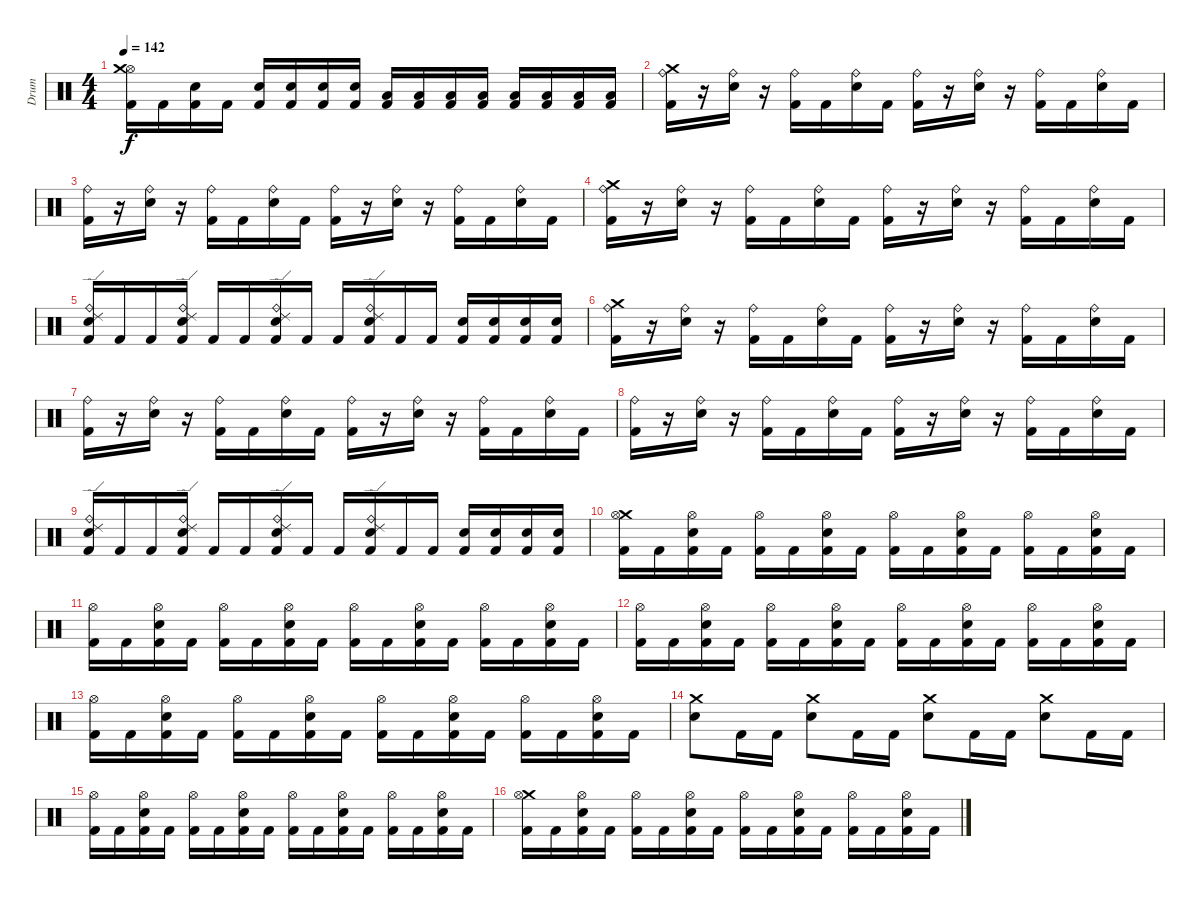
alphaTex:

\track ("Drum" "Drum") {instrument percussion}
\staff {score}
\articulation defaults
\ts (4 4)
\tempo 142
\clef neutral
\ks c
("Hi-Hat (open)" "Crash medium (hit)" "Kick (hit) 2").16{dy f} "Kick (hit) 2".16 ("Electric Snare (hit)" "Kick (hit) 2").16 "Kick (hit) 2".16 ("Electric Snare (hit)" "Kick (hit) 2").16 ("Electric Snare (hit)" "Kick (hit) 2").16 ("Electric Snare (hit)" "Kick (hit) 2").16 ("Electric Snare (hit)" "Kick (hit) 2").16 ("Low Tom (hit)" "Kick (hit) 2").16 ("Low Tom (hit)" "Kick (hit) 2").16 ("Low Tom (hit)" "Kick (hit) 2").16 ("Low Tom (hit)" "Kick (hit) 2").16 ("Low Tom (hit)" "Kick (hit) 2").16 ("Low Tom (hit)" "Kick (hit) 2").16 ("Low Tom (hit)" "Kick (hit) 2").16 ("Low Tom (hit)" "Kick (hit) 2").16 |
("Ride (bell)" "Kick (hit) 2" "Crash medium (hit)").16 r.16 ("Ride (bell)" "Electric Snare (hit)").16 r.16 ("Ride (bell)" "Kick (hit) 2").16 "Kick (hit) 2".16 ("Ride (bell)" "Electric Snare (hit)").16 "Kick (hit) 2".16 ("Ride (bell)" "Kick (hit) 2").16 r.16 ("Ride (bell)" "Electric Snare (hit)").16 r.16 ("Ride (bell)" "Kick (hit) 2").16 "Kick (hit) 2".16 ("Ride (bell)" "Electric Snare (hit)").16 "Kick (hit) 2".16 |
("Ride (bell)" "Kick (hit) 2").16 r.16 ("Ride (bell)" "Electric Snare (hit)").16 r.16 ("Ride (bell)" "Kick (hit) 2").16 "Kick (hit) 2".16 ("Ride (bell)" "Electric Snare (hit)").16 "Kick (hit) 2".16 ("Ride (bell)" "Kick (hit) 2").16 r.16 ("Ride (bell)" "Electric Snare (hit)").16 r.16 ("Ride (bell)" "Kick (hit) 2").16 "Kick (hit) 2".16 ("Ride (bell)" "Electric Snare (hit)").16 "Kick (hit) 2".16 |
("Ride (bell)" "Kick (hit) 2" "Crash medium (hit)").16 r.16 ("Ride (bell)" "Electric Snare (hit)").16 r.16 ("Ride (bell)" "Kick (hit) 2").16 "Kick (hit) 2".16 ("Ride (bell)" "Electric Snare (hit)").16 "Kick (hit) 2".16 ("Ride (bell)" "Kick (hit) 2").16 r.16 ("Ride (bell)" "Electric Snare (hit)").16 r.16 ("Ride (bell)" "Kick (hit) 2").16 "Kick (hit) 2".16 ("Ride (bell)" "Electric Snare (hit)").16 "Kick (hit) 2".16 |
("Ride (bell)" "Electric Snare (hit)" "Ride (edge) 2" "Kick (hit) 2").16 "Kick (hit) 2".16 "Kick (hit) 2".16 ("Ride (bell)" "Electric Snare (hit)" "Ride (edge) 2" "Kick (hit) 2").16 "Kick (hit) 2".16 "Kick (hit) 2".16 ("Ride (bell)" "Electric Snare (hit)" "Ride (edge) 2" "Kick (hit) 2").16 "Kick (hit) 2".16 "Kick (hit) 2".16 ("Ride (bell)" "Electric Snare (hit)" "Ride (edge) 2" "Kick (hit) 2").16 "Kick (hit) 2".16 "Kick (hit) 2".16 ("Electric Snare (hit)" "Kick (hit) 2").16 ("Electric Snare (hit)" "Kick (hit) 2").16 ("Electric Snare (hit)" "Kick (hit) 2").16 ("Electric Snare (hit)" "Kick (hit) 2").16 |
("Ride (bell)" "Kick (hit) 2" "Crash medium (hit)").16 r.16 ("Ride (bell)" "Electric Snare (hit)").16 r.16 ("Ride (bell)" "Kick (hit) 2").16 "Kick (hit) 2".16 ("Ride (bell)" "Electric Snare (hit)").16 "Kick (hit) 2".16 ("Ride (bell)" "Kick (hit) 2").16 r.16 ("Ride (bell)" "Electric Snare (hit)").16 r.16 ("Ride (bell)" "Kick (hit) 2").16 "Kick (hit) 2".16 ("Ride (bell)" "Electric Snare (hit)").16 "Kick (hit) 2".16 |
("Ride (bell)" "Kick (hit) 2").16 r.16 ("Ride (bell)" "Electric Snare (hit)").16 r.16 ("Ride (bell)" "Kick (hit) 2").16 "Kick (hit) 2".16 ("Ride (bell)" "Electric Snare (hit)").16 "Kick (hit) 2".16 ("Ride (bell)" "Kick (hit) 2").16 r.16 ("Ride (bell)" "Electric Snare (hit)").16 r.16 ("Ride (bell)" "Kick (hit) 2").16 "Kick (hit) 2".16 ("Ride (bell)" "Electric Snare (hit)").16 "Kick (hit) 2".16 |
("Ride (bell)" "Kick (hit) 2").16 r.16 ("Ride (bell)" "Electric Snare (hit)").16 r.16 ("Ride (bell)" "Kick (hit) 2").16 "Kick (hit) 2".16 ("Ride (bell)" "Electric Snare (hit)").16 "Kick (hit) 2".16 ("Ride (bell)" "Kick (hit) 2").16 r.16 ("Ride (bell)" "Electric Snare (hit)").16 r.16 ("Ride (bell)" "Kick (hit) 2").16 "Kick (hit) 2".16 ("Ride (bell)" "Electric Snare (hit)").16 "Kick (hit) 2".16 |
("Ride (bell)" "Electric Snare (hit)" "Ride (edge) 2" "Kick (hit) 2").16 "Kick (hit) 2".16 "Kick (hit) 2".16 ("Ride (bell)" "Electric Snare (hit)" "Ride (edge) 2" "Kick (hit) 2").16 "Kick (hit) 2".16 "Kick (hit) 2".16 ("Ride (bell)" "Electric Snare (hit)" "Ride (edge) 2" "Kick (hit) 2").16 "Kick (hit) 2".16 "Kick (hit) 2".16 ("Ride (bell)" "Electric Snare (hit)" "Ride (edge) 2" "Kick (hit) 2").16 "Kick (hit) 2".16 "Kick (hit) 2".16 ("Electric Snare (hit)" "Kick (hit) 2").16 ("Electric Snare (hit)" "Kick (hit) 2").16 ("Electric Snare (hit)" "Kick (hit) 2").16 ("Electric Snare (hit)" "Kick (hit) 2").16 |
("Crash medium (hit)" "Hi-Hat (open)" "Kick (hit) 2").16 "Kick (hit) 2".16 ("Electric Snare (hit)" "Hi-Hat (open)" "Kick (hit) 2").16 "Kick (hit) 2".16 ("Hi-Hat (open)" "Kick (hit) 2").16 "Kick (hit) 2".16 ("Electric Snare (hit)" "Hi-Hat (open)" "Kick (hit) 2").16 "Kick (hit) 2".16 ("Hi-Hat (open)" "Kick (hit) 2").16 "Kick (hit) 2".16 ("Electric Snare (hit)" "Hi-Hat (open)" "Kick (hit) 2").16 "Kick (hit) 2".16 ("Hi-Hat (open)" "Kick (hit) 2").16 "Kick (hit) 2".16 ("Electric Snare (hit)" "Hi-Hat (open)" "Kick (hit) 2").16 "Kick (hit) 2".16 |
("Hi-Hat (open)" "Kick (hit) 2").16 "Kick (hit) 2".16 ("Electric Snare (hit)" "Hi-Hat (open)" "Kick (hit) 2").16 "Kick (hit) 2".16 ("Hi-Hat (open)" "Kick (hit) 2").16 "Kick (hit) 2".16 ("Electric Snare (hit)" "Hi-Hat (open)" "Kick (hit) 2").16 "Kick (hit) 2".16 ("Hi-Hat (open)" "Kick (hit) 2").16 "Kick (hit) 2".16 ("Electric Snare (hit)" "Hi-Hat (open)" "Kick (hit) 2").16 "Kick (hit) 2".16 ("Hi-Hat (open)" "Kick (hit) 2").16 "Kick (hit) 2".16 ("Electric Snare (hit)" "Hi-Hat (open)" "Kick (hit) 2").16 "Kick (hit) 2".16 |
("Hi-Hat (open)" "Kick (hit) 2").16 "Kick (hit) 2".16 ("Electric Snare (hit)" "Hi-Hat (open)" "Kick (hit) 2").16 "Kick (hit) 2".16 ("Hi-Hat (open)" "Kick (hit) 2").16 "Kick (hit) 2".16 ("Electric Snare (hit)" "Hi-Hat (open)" "Kick (hit) 2").16 "Kick (hit) 2".16 ("Hi-Hat (open)" "Kick (hit) 2").16 "Kick (hit) 2".16 ("Electric Snare (hit)" "Hi-Hat (open)" "Kick (hit) 2").16 "Kick (hit) 2".16 ("Hi-Hat (open)" "Kick (hit) 2").16 "Kick (hit) 2".16 ("Electric Snare (hit)" "Hi-Hat (open)" "Kick (hit) 2").16 "Kick (hit) 2".16 |
("Hi-Hat (open)" "Kick (hit) 2").16 "Kick (hit) 2".16 ("Electric Snare (hit)" "Hi-Hat (open)" "Kick (hit) 2").16 "Kick (hit) 2".16 ("Hi-Hat (open)" "Kick (hit) 2").16 "Kick (hit) 2".16 ("Electric Snare (hit)" "Hi-Hat (open)" "Kick (hit) 2").16 "Kick (hit) 2".16 ("Hi-Hat (open)" "Kick (hit) 2").16 "Kick (hit) 2".16 ("Electric Snare (hit)" "Hi-Hat (open)" "Kick (hit) 2").16 "Kick (hit) 2".16 ("Hi-Hat (open)" "Kick (hit) 2").16 "Kick (hit) 2".16 ("Electric Snare (hit)" "Hi-Hat (open)" "Kick (hit) 2").16 "Kick (hit) 2".16 |
("Electric Snare (hit)" "Crash medium (hit)").8 "Kick (hit) 2".16 "Kick (hit) 2".16 ("Electric Snare (hit)" "Crash medium (hit)").8 "Kick (hit) 2".16 "Kick (hit) 2".16 ("Electric Snare (hit)" "Crash medium (hit)").8 "Kick (hit) 2".16 "Kick (hit) 2".16 ("Electric Snare (hit)" "Crash medium (hit)").8 "Kick (hit) 2".16 "Kick (hit) 2".16 |
("Hi-Hat (open)" "Kick (hit) 2").16 "Kick (hit) 2".16 ("Electric Snare (hit)" "Hi-Hat (open)" "Kick (hit) 2").16 "Kick (hit) 2".16 ("Hi-Hat (open)" "Kick (hit) 2").16 "Kick (hit) 2".16 ("Electric Snare (hit)" "Hi-Hat (open)" "Kick (hit) 2").16 "Kick (hit) 2".16 ("Hi-Hat (open)" "Kick (hit) 2").16 "Kick (hit) 2".16 ("Electric Snare (hit)" "Hi-Hat (open)" "Kick (hit) 2").16 "Kick (hit) 2".16 ("Hi-Hat (open)" "Kick (hit) 2").16 "Kick (hit) 2".16 ("Electric Snare (hit)" "Hi-Hat (open)" "Kick (hit) 2").16 "Kick (hit) 2".16 |
("Crash medium (hit)" "Hi-Hat (open)" "Kick (hit) 2").16 "Kick (hit) 2".16 ("Electric Snare (hit)" "Hi-Hat (open)" "Kick (hit) 2").16 "Kick (hit) 2".16 ("Hi-Hat (open)" "Kick (hit) 2").16 "Kick (hit) 2".16 ("Electric Snare (hit)" "Hi-Hat (open)" "Kick (hit) 2").16 "Kick (hit) 2".16 ("Hi-Hat (open)" "Kick (hit) 2").16 "Kick (hit) 2".16 ("Electric Snare (hit)" "Hi-Hat (open)" "Kick (hit) 2").16 "Kick (hit) 2".16 ("Hi-Hat (open)" "Kick (hit) 2").16 "Kick (hit) 2".16 ("Electric Snare (hit)" "Hi-Hat (open)" "Kick (hit) 2").16 "Kick (hit) 2".16
